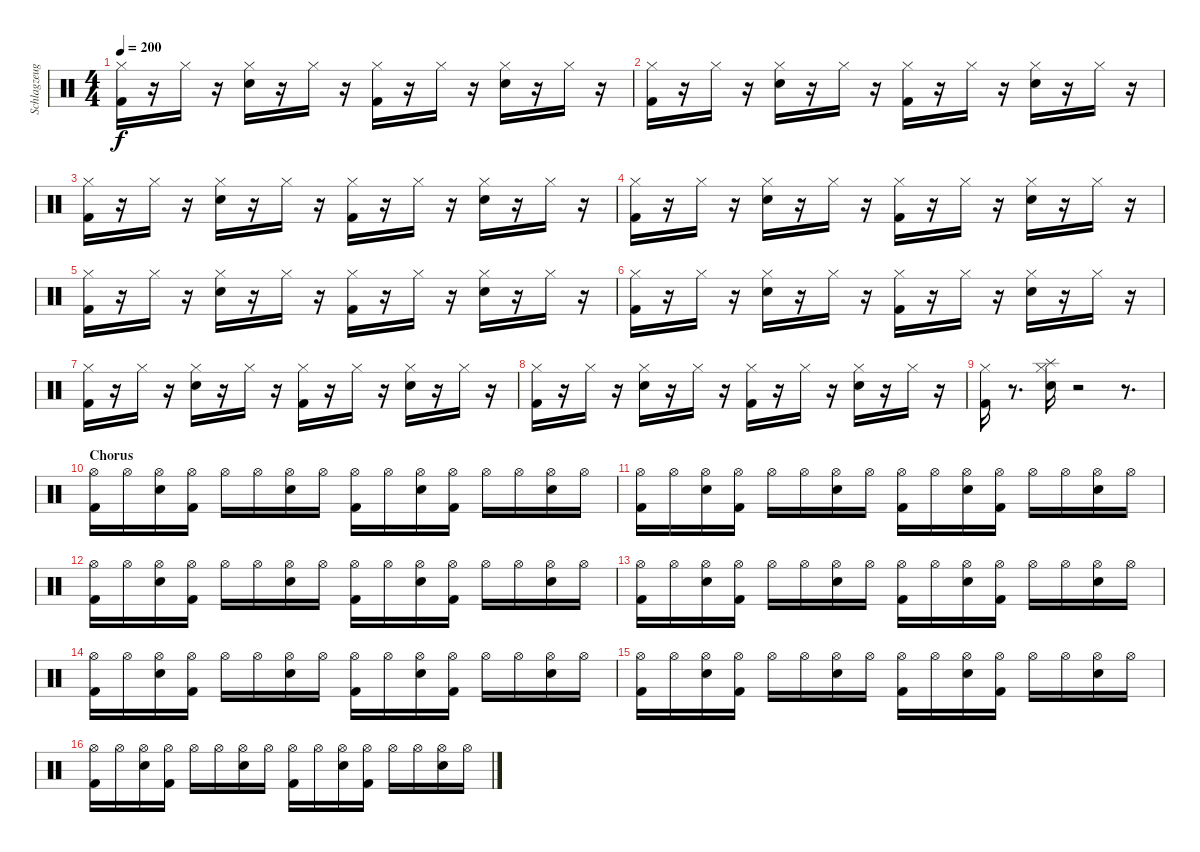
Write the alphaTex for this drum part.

\track ("Schlagzeug - Bela B." "Schlagzeug") {instrument percussion}
\staff {score}
\articulation defaults
\ts (4 4)
\tempo 200
\clef neutral
\ks c
("Kick (hit) 2" "Hi-Hat (closed)").16{dy f} r.16 "Hi-Hat (closed)".16 r.16 ("Hi-Hat (closed)" "Snare (hit) 2").16 r.16 "Hi-Hat (closed)".16 r.16 ("Kick (hit) 2" "Hi-Hat (closed)").16 r.16 "Hi-Hat (closed)".16 r.16 ("Hi-Hat (closed)" "Snare (hit) 2").16 r.16 "Hi-Hat (closed)".16 r.16 |
("Kick (hit) 2" "Hi-Hat (closed)").16 r.16 "Hi-Hat (closed)".16 r.16 ("Hi-Hat (closed)" "Snare (hit) 2").16 r.16 "Hi-Hat (closed)".16 r.16 ("Kick (hit) 2" "Hi-Hat (closed)").16 r.16 "Hi-Hat (closed)".16 r.16 ("Hi-Hat (closed)" "Snare (hit) 2").16 r.16 "Hi-Hat (closed)".16 r.16 |
("Kick (hit) 2" "Hi-Hat (closed)").16 r.16 "Hi-Hat (closed)".16 r.16 ("Hi-Hat (closed)" "Snare (hit) 2").16 r.16 "Hi-Hat (closed)".16 r.16 ("Kick (hit) 2" "Hi-Hat (closed)").16 r.16 "Hi-Hat (closed)".16 r.16 ("Hi-Hat (closed)" "Snare (hit) 2").16 r.16 "Hi-Hat (closed)".16 r.16 |
("Kick (hit) 2" "Hi-Hat (closed)").16 r.16 "Hi-Hat (closed)".16 r.16 ("Hi-Hat (closed)" "Snare (hit) 2").16 r.16 "Hi-Hat (closed)".16 r.16 ("Kick (hit) 2" "Hi-Hat (closed)").16 r.16 "Hi-Hat (closed)".16 r.16 ("Hi-Hat (closed)" "Snare (hit) 2").16 r.16 "Hi-Hat (closed)".16 r.16 |
("Kick (hit) 2" "Hi-Hat (closed)").16 r.16 "Hi-Hat (closed)".16 r.16 ("Hi-Hat (closed)" "Snare (hit) 2").16 r.16 "Hi-Hat (closed)".16 r.16 ("Kick (hit) 2" "Hi-Hat (closed)").16 r.16 "Hi-Hat (closed)".16 r.16 ("Hi-Hat (closed)" "Snare (hit) 2").16 r.16 "Hi-Hat (closed)".16 r.16 |
("Kick (hit) 2" "Hi-Hat (closed)").16 r.16 "Hi-Hat (closed)".16 r.16 ("Hi-Hat (closed)" "Snare (hit) 2").16 r.16 "Hi-Hat (closed)".16 r.16 ("Kick (hit) 2" "Hi-Hat (closed)").16 r.16 "Hi-Hat (closed)".16 r.16 ("Hi-Hat (closed)" "Snare (hit) 2").16 r.16 "Hi-Hat (closed)".16 r.16 |
("Kick (hit) 2" "Hi-Hat (closed)").16 r.16 "Hi-Hat (closed)".16 r.16 ("Hi-Hat (closed)" "Snare (hit) 2").16 r.16 "Hi-Hat (closed)".16 r.16 ("Kick (hit) 2" "Hi-Hat (closed)").16 r.16 "Hi-Hat (closed)".16 r.16 ("Hi-Hat (closed)" "Snare (hit) 2").16 r.16 "Hi-Hat (closed)".16 r.16 |
("Kick (hit) 2" "Hi-Hat (closed)").16 r.16 "Hi-Hat (closed)".16 r.16 ("Hi-Hat (closed)" "Snare (hit) 2").16 r.16 "Hi-Hat (closed)".16 r.16 ("Kick (hit) 2" "Hi-Hat (closed)").16 r.16 "Hi-Hat (closed)".16 r.16 ("Hi-Hat (closed)" "Snare (hit) 2").16 r.16 "Hi-Hat (closed)".16 r.16 |
("Kick (hit) 2" "Hi-Hat (closed)").16 r.8{d} ("Electric Snare (hit)" "Hi-Hat (closed)" "Splash (hit)").16 r.2 r.8{d} |
\section ("" "Chorus")
("Kick (hit) 2" "Hi-Hat (open)").16 "Hi-Hat (open)".16 ("Electric Snare (hit)" "Hi-Hat (open)").16 ("Hi-Hat (open)" "Kick (hit) 2").16 "Hi-Hat (open)".16 "Hi-Hat (open)".16 ("Electric Snare (hit)" "Hi-Hat (open)").16 "Hi-Hat (open)".16 ("Kick (hit) 2" "Hi-Hat (open)").16 "Hi-Hat (open)".16 ("Electric Snare (hit)" "Hi-Hat (open)").16 ("Hi-Hat (open)" "Kick (hit) 2").16 "Hi-Hat (open)".16 "Hi-Hat (open)".16 ("Electric Snare (hit)" "Hi-Hat (open)").16 "Hi-Hat (open)".16 |
("Kick (hit) 2" "Hi-Hat (open)").16 "Hi-Hat (open)".16 ("Electric Snare (hit)" "Hi-Hat (open)").16 ("Hi-Hat (open)" "Kick (hit) 2").16 "Hi-Hat (open)".16 "Hi-Hat (open)".16 ("Electric Snare (hit)" "Hi-Hat (open)").16 "Hi-Hat (open)".16 ("Kick (hit) 2" "Hi-Hat (open)").16 "Hi-Hat (open)".16 ("Electric Snare (hit)" "Hi-Hat (open)").16 ("Hi-Hat (open)" "Kick (hit) 2").16 "Hi-Hat (open)".16 "Hi-Hat (open)".16 ("Electric Snare (hit)" "Hi-Hat (open)").16 "Hi-Hat (open)".16 |
("Kick (hit) 2" "Hi-Hat (open)").16 "Hi-Hat (open)".16 ("Electric Snare (hit)" "Hi-Hat (open)").16 ("Hi-Hat (open)" "Kick (hit) 2").16 "Hi-Hat (open)".16 "Hi-Hat (open)".16 ("Electric Snare (hit)" "Hi-Hat (open)").16 "Hi-Hat (open)".16 ("Kick (hit) 2" "Hi-Hat (open)").16 "Hi-Hat (open)".16 ("Electric Snare (hit)" "Hi-Hat (open)").16 ("Hi-Hat (open)" "Kick (hit) 2").16 "Hi-Hat (open)".16 "Hi-Hat (open)".16 ("Electric Snare (hit)" "Hi-Hat (open)").16 "Hi-Hat (open)".16 |
("Kick (hit) 2" "Hi-Hat (open)").16 "Hi-Hat (open)".16 ("Electric Snare (hit)" "Hi-Hat (open)").16 ("Hi-Hat (open)" "Kick (hit) 2").16 "Hi-Hat (open)".16 "Hi-Hat (open)".16 ("Electric Snare (hit)" "Hi-Hat (open)").16 "Hi-Hat (open)".16 ("Kick (hit) 2" "Hi-Hat (open)").16 "Hi-Hat (open)".16 ("Electric Snare (hit)" "Hi-Hat (open)").16 ("Hi-Hat (open)" "Kick (hit) 2").16 "Hi-Hat (open)".16 "Hi-Hat (open)".16 ("Electric Snare (hit)" "Hi-Hat (open)").16 "Hi-Hat (open)".16 |
("Kick (hit) 2" "Hi-Hat (open)").16 "Hi-Hat (open)".16 ("Electric Snare (hit)" "Hi-Hat (open)").16 ("Hi-Hat (open)" "Kick (hit) 2").16 "Hi-Hat (open)".16 "Hi-Hat (open)".16 ("Electric Snare (hit)" "Hi-Hat (open)").16 "Hi-Hat (open)".16 ("Kick (hit) 2" "Hi-Hat (open)").16 "Hi-Hat (open)".16 ("Electric Snare (hit)" "Hi-Hat (open)").16 ("Hi-Hat (open)" "Kick (hit) 2").16 "Hi-Hat (open)".16 "Hi-Hat (open)".16 ("Electric Snare (hit)" "Hi-Hat (open)").16 "Hi-Hat (open)".16 |
("Kick (hit) 2" "Hi-Hat (open)").16 "Hi-Hat (open)".16 ("Electric Snare (hit)" "Hi-Hat (open)").16 ("Hi-Hat (open)" "Kick (hit) 2").16 "Hi-Hat (open)".16 "Hi-Hat (open)".16 ("Electric Snare (hit)" "Hi-Hat (open)").16 "Hi-Hat (open)".16 ("Kick (hit) 2" "Hi-Hat (open)").16 "Hi-Hat (open)".16 ("Electric Snare (hit)" "Hi-Hat (open)").16 ("Hi-Hat (open)" "Kick (hit) 2").16 "Hi-Hat (open)".16 "Hi-Hat (open)".16 ("Electric Snare (hit)" "Hi-Hat (open)").16 "Hi-Hat (open)".16 |
("Kick (hit) 2" "Hi-Hat (open)").16 "Hi-Hat (open)".16 ("Electric Snare (hit)" "Hi-Hat (open)").16 ("Hi-Hat (open)" "Kick (hit) 2").16 "Hi-Hat (open)".16 "Hi-Hat (open)".16 ("Electric Snare (hit)" "Hi-Hat (open)").16 "Hi-Hat (open)".16 ("Kick (hit) 2" "Hi-Hat (open)").16 "Hi-Hat (open)".16 ("Electric Snare (hit)" "Hi-Hat (open)").16 ("Hi-Hat (open)" "Kick (hit) 2").16 "Hi-Hat (open)".16 "Hi-Hat (open)".16 ("Electric Snare (hit)" "Hi-Hat (open)").16 "Hi-Hat (open)".16
